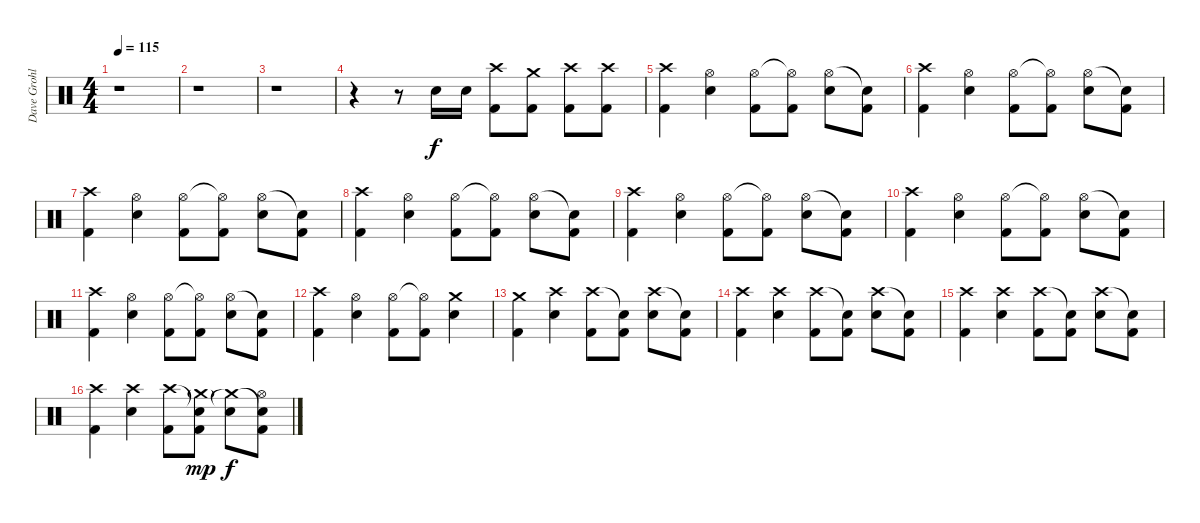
\track ("Dave Grohl - Drums" "Dave Grohl") {instrument percussion}
\staff {score}
\articulation defaults
\ts (4 4)
\tempo 115
\clef neutral
\ks c
r.1{dy f} |
r.1 |
r.1 |
r.4 r.8 "Electric Snare (hit)".16 "Electric Snare (hit)".16 ("Crash high (hit)" "Kick (hit) 2").8 ("Crash medium (hit)" "Kick (hit) 2").8 ("Crash high (hit)" "Kick (hit) 2").8 ("Crash high (hit)" "Kick (hit) 2").8 |
("Crash high (hit)" "Kick (hit) 2").4 ("Hi-Hat (open)" "Electric Snare (hit)").4 ("Hi-Hat (open)" "Kick (hit) 2").8 ("Hi-Hat (open)"{t} "Kick (hit) 2").8 ("Hi-Hat (open)" "Electric Snare (hit)").8 ("Snare (hit)"{t} "Kick (hit) 2").8 |
("Crash high (hit)" "Kick (hit) 2").4 ("Hi-Hat (open)" "Electric Snare (hit)").4 ("Hi-Hat (open)" "Kick (hit) 2").8 ("Hi-Hat (open)"{t} "Kick (hit) 2").8 ("Hi-Hat (open)" "Electric Snare (hit)").8 ("Snare (hit)"{t} "Kick (hit) 2").8 |
("Crash high (hit)" "Kick (hit) 2").4 ("Hi-Hat (open)" "Electric Snare (hit)").4 ("Hi-Hat (open)" "Kick (hit) 2").8 ("Hi-Hat (open)"{t} "Kick (hit) 2").8 ("Hi-Hat (open)" "Electric Snare (hit)").8 ("Snare (hit)"{t} "Kick (hit) 2").8 |
("Crash high (hit)" "Kick (hit) 2").4 ("Hi-Hat (open)" "Electric Snare (hit)").4 ("Hi-Hat (open)" "Kick (hit) 2").8 ("Hi-Hat (open)"{t} "Kick (hit) 2").8 ("Hi-Hat (open)" "Electric Snare (hit)").8 ("Snare (hit)"{t} "Kick (hit) 2").8 |
("Crash high (hit)" "Kick (hit) 2").4 ("Hi-Hat (open)" "Electric Snare (hit)").4 ("Hi-Hat (open)" "Kick (hit) 2").8 ("Hi-Hat (open)"{t} "Kick (hit) 2").8 ("Hi-Hat (open)" "Electric Snare (hit)").8 ("Snare (hit)"{t} "Kick (hit) 2").8 |
("Crash high (hit)" "Kick (hit) 2").4 ("Hi-Hat (open)" "Electric Snare (hit)").4 ("Hi-Hat (open)" "Kick (hit) 2").8 ("Hi-Hat (open)"{t} "Kick (hit) 2").8 ("Hi-Hat (open)" "Electric Snare (hit)").8 ("Snare (hit)"{t} "Kick (hit) 2").8 |
("Crash high (hit)" "Kick (hit) 2").4 ("Hi-Hat (open)" "Electric Snare (hit)").4 ("Hi-Hat (open)" "Kick (hit) 2").8 ("Hi-Hat (open)"{t} "Kick (hit) 2").8 ("Hi-Hat (open)" "Electric Snare (hit)").8 ("Snare (hit)"{t} "Kick (hit) 2").8 |
("Crash high (hit)" "Kick (hit) 2").4 ("Hi-Hat (open)" "Electric Snare (hit)").4 ("Hi-Hat (open)" "Kick (hit) 2").8 ("Hi-Hat (open)"{t} "Kick (hit) 2").8 ("Crash medium (hit)" "Electric Snare (hit)").4 |
("Crash medium (hit)" "Kick (hit) 2").4 ("Crash high (hit)" "Electric Snare (hit)").4 ("Crash high (hit)" "Kick (hit) 2").8 ("Snare (hit)"{t} "Kick (hit) 2").8 ("Crash high (hit)" "Electric Snare (hit)").8 ("Snare (hit)"{t} "Kick (hit) 2").8 |
("Crash high (hit)" "Kick (hit) 2").4 ("Crash high (hit)" "Electric Snare (hit)").4 ("Crash high (hit)" "Kick (hit) 2").8 ("Snare (hit)"{t} "Kick (hit) 2").8 ("Crash high (hit)" "Electric Snare (hit)").8 ("Snare (hit)"{t} "Kick (hit) 2").8 |
("Crash high (hit)" "Kick (hit) 2").4 ("Crash high (hit)" "Electric Snare (hit)").4 ("Crash high (hit)" "Kick (hit) 2").8 ("Snare (hit)"{t} "Kick (hit) 2").8 ("Crash high (hit)" "Electric Snare (hit)").8 ("Snare (hit)"{t} "Kick (hit) 2").8 |
("Crash high (hit)" "Kick (hit) 2").4 ("Crash high (hit)" "Electric Snare (hit)").4 ("Crash high (hit)" "Kick (hit) 2").8 ("Snare (hit)"{t} "Crash medium (hit)"{g} "Kick (hit) 2").8{dy mp} ("Crash medium (hit)"{t} "Electric Snare (hit)").8{dy f} ("Snare (hit)"{t} "Hi-Hat (open)" "Kick (hit) 2").8
